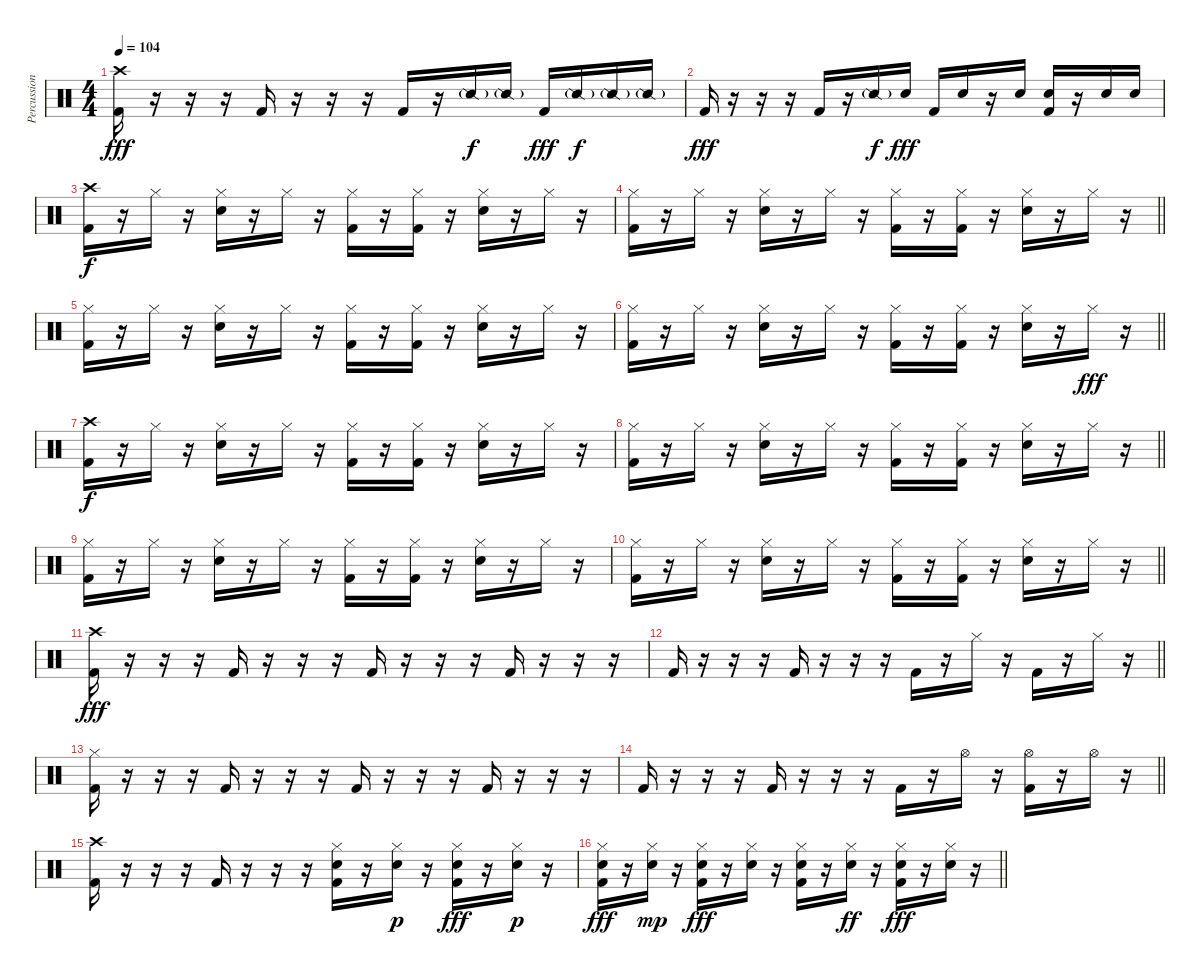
\track ("Percussion" "Percussion") {instrument percussion}
\staff {score}
\articulation defaults
\ts (4 4)
\tempo 104
\clef neutral
\ks c
("Crash high (hit)" "Kick (hit) 2").16{dy fff} r.16 r.16 r.16 "Kick (hit) 2".16 r.16 r.16 r.16 "Kick (hit) 2".16 r.16 "Snare (side stick) 2"{g}.16{dy f} "Snare (side stick) 2"{g}.16 "Kick (hit) 2".16{dy fff} "Snare (side stick) 2"{g}.16{dy f} "Snare (side stick) 2"{g}.16 "Snare (side stick) 2"{g}.16 |
"Kick (hit) 2".16{dy fff} r.16 r.16 r.16 "Kick (hit) 2".16 r.16 "Snare (side stick) 2"{g}.16{dy f} "Electric Snare (hit)".16{dy fff} "Kick (hit) 2".16 "Electric Snare (hit)".16 r.16 "Electric Snare (hit)".16 ("Electric Snare (hit)" "Kick (hit) 2").16 r.16 "Electric Snare (hit)".16 "Electric Snare (hit)".16 |
("Crash high (hit)" "Kick (hit) 2").16{dy f} r.16 "Hi-Hat (closed)".16 r.16 ("Hi-Hat (closed)" "Electric Snare (hit)").16 r.16 "Hi-Hat (closed)".16 r.16 ("Hi-Hat (closed)" "Kick (hit) 2").16 r.16 ("Hi-Hat (closed)" "Kick (hit) 2").16 r.16 ("Hi-Hat (closed)" "Electric Snare (hit)").16 r.16 "Hi-Hat (closed)".16 r.16 |
\barLineRight lightlight
("Hi-Hat (closed)" "Kick (hit) 2").16 r.16 "Hi-Hat (closed)".16 r.16 ("Hi-Hat (closed)" "Electric Snare (hit)").16 r.16 "Hi-Hat (closed)".16 r.16 ("Hi-Hat (closed)" "Kick (hit) 2").16 r.16 ("Hi-Hat (closed)" "Kick (hit) 2").16 r.16 ("Hi-Hat (closed)" "Electric Snare (hit)").16 r.16 "Hi-Hat (closed)".16 r.16 |
("Hi-Hat (closed)" "Kick (hit) 2").16 r.16 "Hi-Hat (closed)".16 r.16 ("Hi-Hat (closed)" "Electric Snare (hit)").16 r.16 "Hi-Hat (closed)".16 r.16 ("Hi-Hat (closed)" "Kick (hit) 2").16 r.16 ("Hi-Hat (closed)" "Kick (hit) 2").16 r.16 ("Hi-Hat (closed)" "Electric Snare (hit)").16 r.16 "Hi-Hat (closed)".16 r.16 |
\barLineRight lightlight
("Hi-Hat (closed)" "Kick (hit) 2").16 r.16 "Hi-Hat (closed)".16 r.16 ("Hi-Hat (closed)" "Electric Snare (hit)").16 r.16 "Hi-Hat (closed)".16 r.16 ("Hi-Hat (closed)" "Kick (hit) 2").16 r.16 ("Hi-Hat (closed)" "Kick (hit) 2").16 r.16 ("Hi-Hat (closed)" "Electric Snare (hit)").16 r.16 "Hi-Hat (closed)".16{dy fff} r.16 |
("Crash high (hit)" "Kick (hit) 2").16{dy f} r.16 "Hi-Hat (closed)".16 r.16 ("Hi-Hat (closed)" "Electric Snare (hit)").16 r.16 "Hi-Hat (closed)".16 r.16 ("Hi-Hat (closed)" "Kick (hit) 2").16 r.16 ("Hi-Hat (closed)" "Kick (hit) 2").16 r.16 ("Hi-Hat (closed)" "Electric Snare (hit)").16 r.16 "Hi-Hat (closed)".16 r.16 |
\barLineRight lightlight
("Hi-Hat (closed)" "Kick (hit) 2").16 r.16 "Hi-Hat (closed)".16 r.16 ("Hi-Hat (closed)" "Electric Snare (hit)").16 r.16 "Hi-Hat (closed)".16 r.16 ("Hi-Hat (closed)" "Kick (hit) 2").16 r.16 ("Hi-Hat (closed)" "Kick (hit) 2").16 r.16 ("Hi-Hat (closed)" "Electric Snare (hit)").16 r.16 "Hi-Hat (closed)".16 r.16 |
("Hi-Hat (closed)" "Kick (hit) 2").16 r.16 "Hi-Hat (closed)".16 r.16 ("Hi-Hat (closed)" "Electric Snare (hit)").16 r.16 "Hi-Hat (closed)".16 r.16 ("Hi-Hat (closed)" "Kick (hit) 2").16 r.16 ("Hi-Hat (closed)" "Kick (hit) 2").16 r.16 ("Hi-Hat (closed)" "Electric Snare (hit)").16 r.16 "Hi-Hat (closed)".16 r.16 |
\barLineRight lightlight
("Hi-Hat (closed)" "Kick (hit) 2").16 r.16 "Hi-Hat (closed)".16 r.16 ("Hi-Hat (closed)" "Electric Snare (hit)").16 r.16 "Hi-Hat (closed)".16 r.16 ("Hi-Hat (closed)" "Kick (hit) 2").16 r.16 ("Hi-Hat (closed)" "Kick (hit) 2").16 r.16 ("Hi-Hat (closed)" "Electric Snare (hit)").16 r.16 "Hi-Hat (closed)".16 r.16 |
("Crash high (hit)" "Kick (hit) 2").16{dy fff} r.16 r.16 r.16 "Kick (hit) 2".16 r.16 r.16 r.16 "Kick (hit) 2".16 r.16 r.16 r.16 "Kick (hit) 2".16 r.16 r.16 r.16 |
\barLineRight lightlight "Kick (hit) 2".16
r.16 r.16 r.16 "Kick (hit) 2".16 r.16 r.16 r.16 "Kick (hit) 2".16 r.16 "Hi-Hat (closed)".16 r.16 "Kick (hit) 2".16 r.16 "Hi-Hat (closed)".16 r.16 |
("Hi-Hat (closed)" "Kick (hit) 2").16 r.16 r.16 r.16 "Kick (hit) 2".16 r.16 r.16 r.16 "Kick (hit) 2".16 r.16 r.16 r.16 "Kick (hit) 2".16 r.16 r.16 r.16 |
\barLineRight lightlight "Kick (hit) 2".16
r.16 r.16 r.16 "Kick (hit) 2".16 r.16 r.16 r.16 "Kick (hit) 2".16 r.16 "Hi-Hat (open)".16 r.16 ("Hi-Hat (open)" "Kick (hit) 2").16 r.16 "Hi-Hat (open)".16 r.16 |
("Crash high (hit)" "Kick (hit) 2").16 r.16 r.16 r.16 "Kick (hit) 2".16 r.16 r.16 r.16 ("Hi-Hat (closed)" "Electric Snare (hit)" "Kick (hit) 2").16 r.16 ("Hi-Hat (closed)" "Electric Snare (hit)").16{dy p} r.16 ("Hi-Hat (closed)" "Electric Snare (hit)" "Kick (hit) 2").16{dy fff} r.16 ("Hi-Hat (closed)" "Electric Snare (hit)").16{dy p} r.16 |
\barLineRight lightlight
("Hi-Hat (closed)" "Electric Snare (hit)" "Kick (hit) 2").16{dy fff} r.16 ("Hi-Hat (closed)" "Electric Snare (hit)").16{dy mp} r.16 ("Hi-Hat (closed)" "Electric Snare (hit)" "Kick (hit) 2").16{dy fff} r.16 ("Hi-Hat (closed)" "Electric Snare (hit)").16 r.16 ("Hi-Hat (closed)" "Electric Snare (hit)" "Kick (hit) 2").16 r.16 ("Hi-Hat (closed)" "Electric Snare (hit)").16{dy ff} r.16 ("Hi-Hat (closed)" "Electric Snare (hit)" "Kick (hit) 2").16{dy fff} r.16 ("Hi-Hat (closed)" "Electric Snare (hit)").16 r.16
